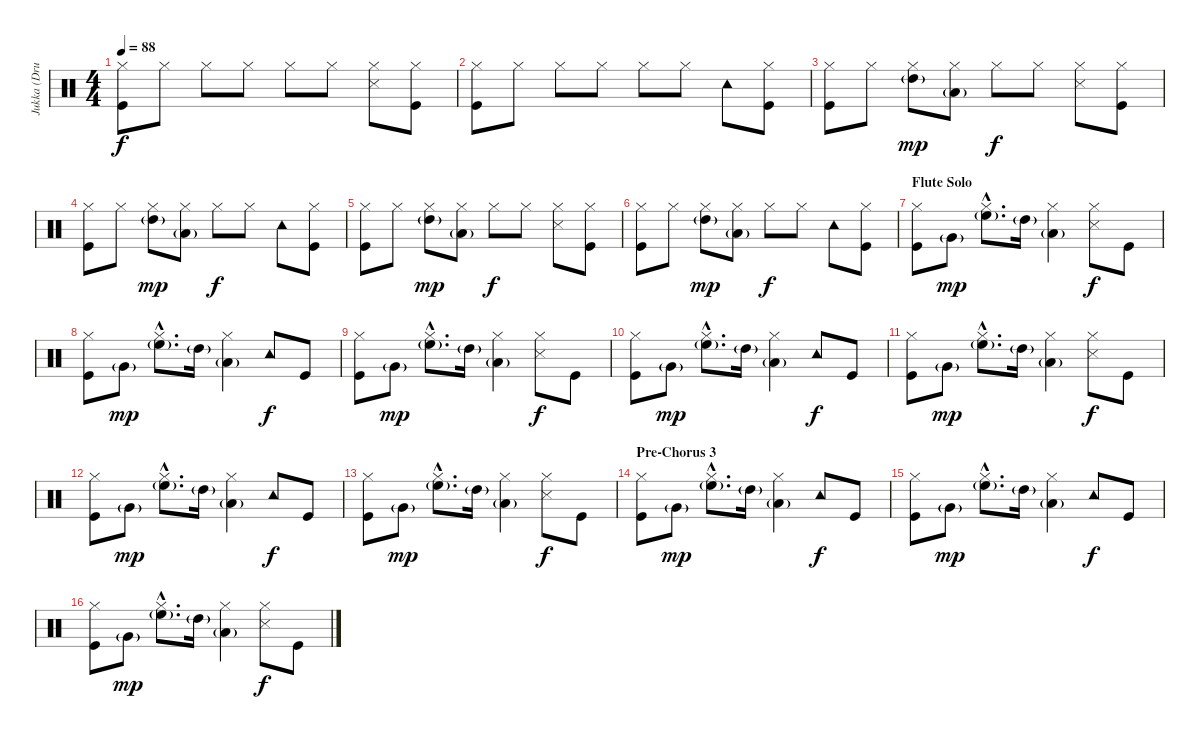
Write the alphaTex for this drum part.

\track ("Jukka (Drums)" "Jukka (Dru") {instrument percussion}
\staff {score}
\articulation defaults
\ts (4 4)
\tempo 88
\clef neutral
\ks c
("Hi-Hat (closed)" "Kick (hit)").8{dy f} "Hi-Hat (closed)".8 "Hi-Hat (closed)".8 "Hi-Hat (closed)".8 "Hi-Hat (closed)".8 "Hi-Hat (closed)".8 ("Hi-Hat (closed)" "Snare (side stick) 3").8 ("Hi-Hat (closed)" "Kick (hit)").8 |
("Hi-Hat (closed)" "Kick (hit)").8 "Hi-Hat (closed)".8 "Hi-Hat (closed)".8 "Hi-Hat (closed)".8 "Hi-Hat (closed)".8 "Hi-Hat (closed)".8 "Tambourine (hit)".8 ("Hi-Hat (closed)" "Kick (hit)").8 |
("Hi-Hat (closed)" "Kick (hit)").8 "Hi-Hat (closed)".8 ("Hi-Hat (closed)" "High Tom (hit)"{g}).8{dy mp} ("Hi-Hat (closed)" "Low Tom (hit)"{g}).8 "Hi-Hat (closed)".8{dy f} "Hi-Hat (closed)".8 ("Hi-Hat (closed)" "Snare (side stick) 3").8 ("Hi-Hat (closed)" "Kick (hit)").8 |
("Hi-Hat (closed)" "Kick (hit)").8 "Hi-Hat (closed)".8 ("Hi-Hat (closed)" "High Tom (hit)"{g}).8{dy mp} ("Hi-Hat (closed)" "Low Tom (hit)"{g}).8 "Hi-Hat (closed)".8{dy f} "Hi-Hat (closed)".8 "Tambourine (hit)".8 ("Hi-Hat (closed)" "Kick (hit)").8 |
("Hi-Hat (closed)" "Kick (hit)").8 "Hi-Hat (closed)".8 ("Hi-Hat (closed)" "High Tom (hit)"{g}).8{dy mp} ("Hi-Hat (closed)" "Low Tom (hit)"{g}).8 "Hi-Hat (closed)".8{dy f} "Hi-Hat (closed)".8 ("Hi-Hat (closed)" "Snare (side stick) 3").8 ("Hi-Hat (closed)" "Kick (hit)").8 |
("Hi-Hat (closed)" "Kick (hit)").8 "Hi-Hat (closed)".8 ("Hi-Hat (closed)" "High Tom (hit)"{g}).8{dy mp} ("Hi-Hat (closed)" "Low Tom (hit)"{g}).8 "Hi-Hat (closed)".8{dy f} "Hi-Hat (closed)".8 "Tambourine (hit)".8 ("Hi-Hat (closed)" "Kick (hit)").8 |
\section ("" "Flute Solo")
("Hi-Hat (closed)" "Kick (hit)").8 "Very Low Tom (hit)"{g}.8{dy mp} ("Hi-Hat (closed)"{hac} "High Floor Tom (hit)"{g hac}).8{d} "High Tom (hit)"{g}.16 ("Hi-Hat (closed)" "Low Floor Tom (hit)"{g}).4 ("Hi-Hat (closed)" "Snare (side stick) 3").8{dy f} "Kick (hit)".8 |
("Hi-Hat (closed)" "Kick (hit)").8 "Very Low Tom (hit)"{g}.8{dy mp} ("Hi-Hat (closed)"{hac} "High Floor Tom (hit)"{g hac}).8{d} "High Tom (hit)"{g}.16 ("Hi-Hat (closed)" "Low Floor Tom (hit)"{g}).4 "Tambourine (hit)".8{dy f} "Kick (hit)".8 |
("Hi-Hat (closed)" "Kick (hit)").8 "Very Low Tom (hit)"{g}.8{dy mp} ("Hi-Hat (closed)"{hac} "High Floor Tom (hit)"{g hac}).8{d} "High Tom (hit)"{g}.16 ("Hi-Hat (closed)" "Low Floor Tom (hit)"{g}).4 ("Hi-Hat (closed)" "Snare (side stick) 3").8{dy f} "Kick (hit)".8 |
("Hi-Hat (closed)" "Kick (hit)").8 "Very Low Tom (hit)"{g}.8{dy mp} ("Hi-Hat (closed)"{hac} "High Floor Tom (hit)"{g hac}).8{d} "High Tom (hit)"{g}.16 ("Hi-Hat (closed)" "Low Floor Tom (hit)"{g}).4 "Tambourine (hit)".8{dy f} "Kick (hit)".8 |
("Hi-Hat (closed)" "Kick (hit)").8 "Very Low Tom (hit)"{g}.8{dy mp} ("Hi-Hat (closed)"{hac} "High Floor Tom (hit)"{g hac}).8{d} "High Tom (hit)"{g}.16 ("Hi-Hat (closed)" "Low Floor Tom (hit)"{g}).4 ("Hi-Hat (closed)" "Snare (side stick) 3").8{dy f} "Kick (hit)".8 |
("Hi-Hat (closed)" "Kick (hit)").8 "Very Low Tom (hit)"{g}.8{dy mp} ("Hi-Hat (closed)"{hac} "High Floor Tom (hit)"{g hac}).8{d} "High Tom (hit)"{g}.16 ("Hi-Hat (closed)" "Low Floor Tom (hit)"{g}).4 "Tambourine (hit)".8{dy f} "Kick (hit)".8 |
("Hi-Hat (closed)" "Kick (hit)").8 "Very Low Tom (hit)"{g}.8{dy mp} ("Hi-Hat (closed)"{hac} "High Floor Tom (hit)"{g hac}).8{d} "High Tom (hit)"{g}.16 ("Hi-Hat (closed)" "Low Floor Tom (hit)"{g}).4 ("Hi-Hat (closed)" "Snare (side stick) 3").8{dy f} "Kick (hit)".8 |
\section ("" "Pre-Chorus 3")
("Hi-Hat (closed)" "Kick (hit)").8 "Very Low Tom (hit)"{g}.8{dy mp} ("Hi-Hat (closed)"{hac} "High Floor Tom (hit)"{g hac}).8{d} "High Tom (hit)"{g}.16 ("Hi-Hat (closed)" "Low Floor Tom (hit)"{g}).4 "Tambourine (hit)".8{dy f} "Kick (hit)".8 |
("Hi-Hat (closed)" "Kick (hit)").8 "Very Low Tom (hit)"{g}.8{dy mp} ("Hi-Hat (closed)"{hac} "High Floor Tom (hit)"{g hac}).8{d} "High Tom (hit)"{g}.16 ("Hi-Hat (closed)" "Low Floor Tom (hit)"{g}).4 "Tambourine (hit)".8{dy f} "Kick (hit)".8 |
("Hi-Hat (closed)" "Kick (hit)").8 "Very Low Tom (hit)"{g}.8{dy mp} ("Hi-Hat (closed)"{hac} "High Floor Tom (hit)"{g hac}).8{d} "High Tom (hit)"{g}.16 ("Hi-Hat (closed)" "Low Floor Tom (hit)"{g}).4 ("Hi-Hat (closed)" "Snare (side stick) 3").8{dy f} "Kick (hit)".8
